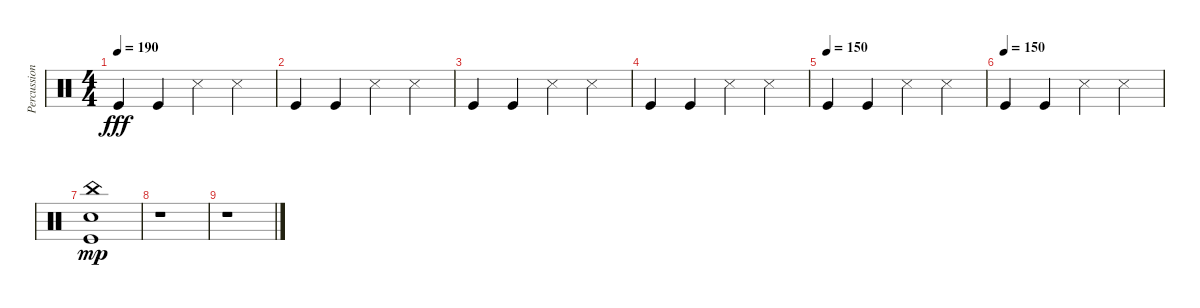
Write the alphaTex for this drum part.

\track ("Percussion" "Percussion") {instrument percussion}
\staff {score}
\articulation defaults
\ts (4 4)
\tempo 190
\clef neutral
\ks c "Kick (hit)".4{dy fff} "Kick (hit)".4 "Snare (side stick) 3".4 "Snare (side stick) 3".4
|
"Kick (hit)".4 "Kick (hit)".4 "Snare (side stick) 3".4 "Snare (side stick) 3".4 |
"Kick (hit)".4 "Kick (hit)".4 "Snare (side stick) 3".4 "Snare (side stick) 3".4 |
"Kick (hit)".4 "Kick (hit)".4 "Snare (side stick) 3".4 "Snare (side stick) 3".4 |
\tempo (150)
"Kick (hit)".4 "Kick (hit)".4 "Snare (side stick) 3".4 "Snare (side stick) 3".4 |
\tempo (150)
"Kick (hit)".4 "Kick (hit)".4 "Snare (side stick) 3".4 "Snare (side stick) 3".4 |
("China (hit)" "Snare (hit) 2" "Kick (hit)").1{dy mp} |
r.1 |
r.1
